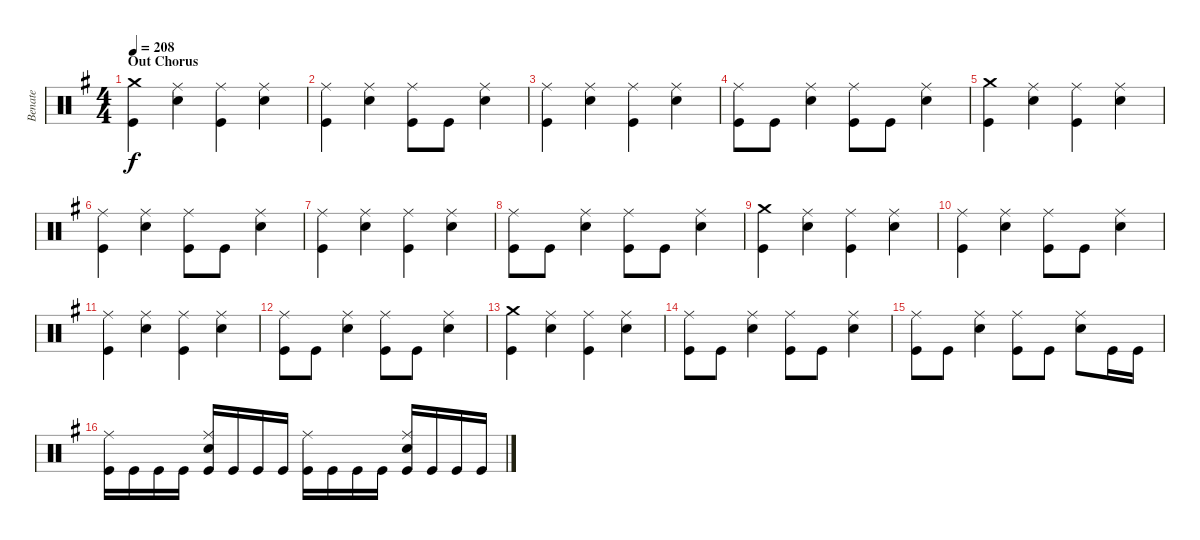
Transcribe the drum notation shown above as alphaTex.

\track ("Benate" "Benate") {instrument percussion}
\staff {score}
\articulation defaults
\ts (4 4)
\section ("" "Out Chorus")
\tempo 208
\clef neutral
\ks g
("Crash medium (hit)" "Kick (hit)").4{dy f} ("Ride (middle)" "Snare (hit) 2").4 ("Ride (middle)" "Kick (hit)").4 ("Ride (middle)" "Snare (hit) 2").4 |
("Ride (middle)" "Kick (hit)").4 ("Ride (middle)" "Snare (hit) 2").4 ("Ride (middle)" "Kick (hit)").8 "Kick (hit)".8 ("Ride (middle)" "Snare (hit) 2").4 |
("Ride (middle)" "Kick (hit)").4 ("Ride (middle)" "Snare (hit) 2").4 ("Ride (middle)" "Kick (hit)").4 ("Ride (middle)" "Snare (hit) 2").4 |
("Ride (middle)" "Kick (hit)").8 "Kick (hit)".8 ("Ride (middle)" "Snare (hit) 2").4 ("Ride (middle)" "Kick (hit)").8 "Kick (hit)".8 ("Ride (middle)" "Snare (hit) 2").4 |
("Crash medium (hit)" "Kick (hit)").4 ("Ride (middle)" "Snare (hit) 2").4 ("Ride (middle)" "Kick (hit)").4 ("Ride (middle)" "Snare (hit) 2").4 |
("Ride (middle)" "Kick (hit)").4 ("Ride (middle)" "Snare (hit) 2").4 ("Ride (middle)" "Kick (hit)").8 "Kick (hit)".8 ("Ride (middle)" "Snare (hit) 2").4 |
("Ride (middle)" "Kick (hit)").4 ("Ride (middle)" "Snare (hit) 2").4 ("Ride (middle)" "Kick (hit)").4 ("Ride (middle)" "Snare (hit) 2").4 |
("Ride (middle)" "Kick (hit)").8 "Kick (hit)".8 ("Ride (middle)" "Snare (hit) 2").4 ("Ride (middle)" "Kick (hit)").8 "Kick (hit)".8 ("Ride (middle)" "Snare (hit) 2").4 |
("Crash medium (hit)" "Kick (hit)").4 ("Ride (middle)" "Snare (hit) 2").4 ("Ride (middle)" "Kick (hit)").4 ("Ride (middle)" "Snare (hit) 2").4 |
("Ride (middle)" "Kick (hit)").4 ("Ride (middle)" "Snare (hit) 2").4 ("Ride (middle)" "Kick (hit)").8 "Kick (hit)".8 ("Ride (middle)" "Snare (hit) 2").4 |
("Ride (middle)" "Kick (hit)").4 ("Ride (middle)" "Snare (hit) 2").4 ("Ride (middle)" "Kick (hit)").4 ("Ride (middle)" "Snare (hit) 2").4 |
("Ride (middle)" "Kick (hit)").8 "Kick (hit)".8 ("Ride (middle)" "Snare (hit) 2").4 ("Ride (middle)" "Kick (hit)").8 "Kick (hit)".8 ("Ride (middle)" "Snare (hit) 2").4 |
("Crash medium (hit)" "Kick (hit)").4 ("Ride (middle)" "Snare (hit) 2").4 ("Ride (middle)" "Kick (hit)").4 ("Ride (middle)" "Snare (hit) 2").4 |
("Ride (middle)" "Kick (hit)").8 "Kick (hit)".8 ("Ride (middle)" "Snare (hit) 2").4 ("Ride (middle)" "Kick (hit)").8 "Kick (hit)".8 ("Ride (middle)" "Snare (hit) 2").4 |
("Ride (middle)" "Kick (hit)").8 "Kick (hit)".8 ("Ride (middle)" "Snare (hit) 2").4 ("Ride (middle)" "Kick (hit)").8 "Kick (hit)".8 ("Ride (middle)" "Snare (hit) 2").8 "Kick (hit)".16 "Kick (hit)".16 |
("Ride (middle)" "Kick (hit)").16 "Kick (hit)".16 "Kick (hit)".16 "Kick (hit)".16 ("Ride (middle)" "Snare (hit) 2" "Kick (hit)").16 "Kick (hit)".16 "Kick (hit)".16 "Kick (hit)".16 ("Ride (middle)" "Kick (hit)").16 "Kick (hit)".16 "Kick (hit)".16 "Kick (hit)".16 ("Ride (middle)" "Snare (hit) 2" "Kick (hit)").16 "Kick (hit)".16 "Kick (hit)".16 "Kick (hit)".16
